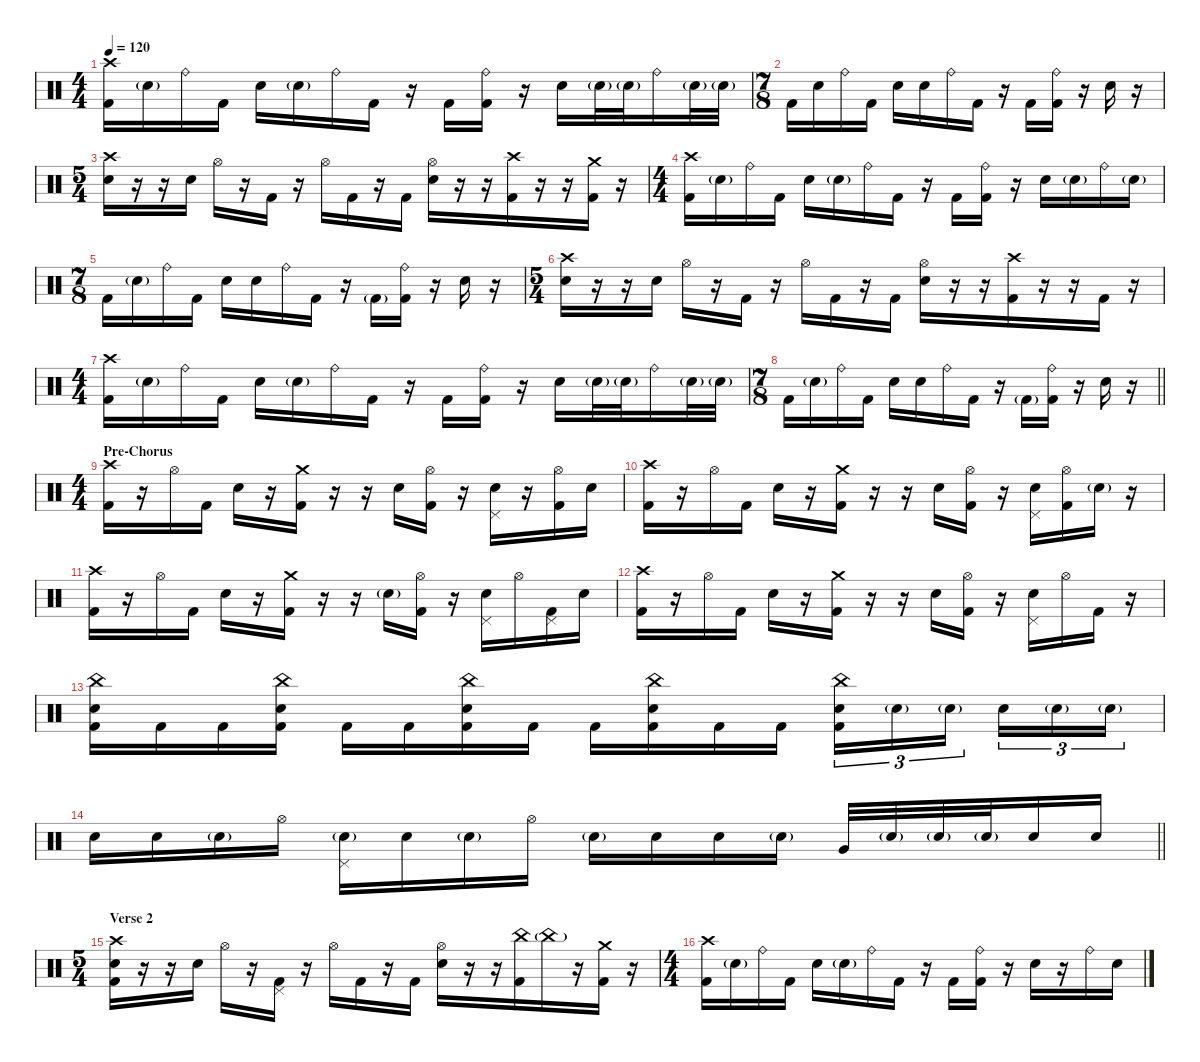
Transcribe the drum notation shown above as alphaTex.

\defaultSystemsLayout 4
\hideDynamics
\bracketExtendMode nobrackets
\singleTrackTrackNamePolicy hidden
\multiTrackTrackNamePolicy hidden
\firstSystemTrackNameMode fullname
\firstSystemTrackNameOrientation horizontal
\otherSystemsTrackNameOrientation horizontal
\track ("Martin Axenrot - Drums" "drm.") {instrument percussion}
\staff {score}
\articulation defaults
\ts (4 4)
\beaming (8 2 2 2 2)
\tempo 120
\clef neutral
\ks c
("Crash high (hit)" "Kick (hit) 2").16{dy f beam Down} "Snare (hit) 2"{g}.16{dy mf beam Down} "Ride (bell)".16{dy f beam Down} "Kick (hit) 2".16{beam Down} "Snare (hit) 2".16{beam Down} "Snare (hit) 2"{g}.16{dy mf beam Down} "Ride (bell)".16{dy f beam Down} "Kick (hit) 2".16{beam Down} r.16{beam Down} "Kick (hit) 2".16{dy mf beam Down} ("Ride (bell)" "Kick (hit) 2").16{dy f beam Down} r.16{beam Down} "Snare (hit) 2".16{beam Down} "Snare (hit) 2"{g}.32{dy mf beam Down} "Snare (hit) 2"{g}.32{beam Down} "Ride (bell)".16{dy f beam Down} "Snare (hit) 2"{g}.32{dy mf beam Down} "Snare (hit) 2"{g}.32{beam Down} |
\ts (7 8)
\beaming (8 2 2 2 2)
"Kick (hit) 2".16{dy f beam Down} "Snare (hit) 2".16{beam Down} "Ride (bell)".16{beam Down} "Kick (hit) 2".16{beam Down} "Snare (hit) 2".16{beam Down} "Snare (hit) 2".16{beam Down} "Ride (bell)".16{beam Down} "Kick (hit) 2".16{beam Down} r.16{beam Down} "Kick (hit) 2".16{beam Down} ("Ride (bell)" "Kick (hit) 2").16{beam Down} r.16{beam Down} "Snare (hit) 2".16{beam Down} r.16{beam Down} |
\ts (5 4)
\beaming (8 2 2 2 4)
("Crash high (hit)" "Snare (hit) 2").16{beam Down} r.16{beam Down} r.16{beam Down} "Snare (hit) 2".16{beam Down} "Hi-Hat (open)".16{beam Down} r.16{beam Down} "Kick (hit) 2".16{beam Down} r.16{beam Down} "Hi-Hat (open)".16{beam Down} "Kick (hit) 2".16{beam Down} r.16{beam Down} "Kick (hit) 2".16{beam Down} ("Hi-Hat (open)" "Snare (hit) 2").16{beam Down} r.16{beam Down} r.16{beam Down} ("Crash high (hit)" "Kick (hit) 2").16{beam Down} r.16{beam Down} r.16{beam Down} ("Crash medium (hit)" "Kick (hit) 2").16{beam Down} r.16{beam Down} |
\ts (4 4)
\beaming (8 2 2 2 2)
("Crash high (hit)" "Kick (hit) 2").16{beam Down} "Snare (hit) 2"{g}.16{dy mf beam Down} "Ride (bell)".16{dy f beam Down} "Kick (hit) 2".16{beam Down} "Snare (hit) 2".16{beam Down} "Snare (hit) 2"{g}.16{dy mf beam Down} "Ride (bell)".16{dy f beam Down} "Kick (hit) 2".16{beam Down} r.16{beam Down} "Kick (hit) 2".16{dy mf beam Down} ("Ride (bell)" "Kick (hit) 2").16{dy f beam Down} r.16{beam Down} "Snare (hit) 2".16{beam Down} "Snare (hit) 2"{g}.16{dy mf beam Down} "Ride (bell)".16{dy f beam Down} "Snare (hit) 2"{g}.16{dy mf beam Down} |
\ts (7 8)
\beaming (8 2 2 2 2)
"Kick (hit) 2".16{dy f beam Down} "Snare (hit) 2"{g}.16{dy mf beam Down} "Ride (bell)".16{dy f beam Down} "Kick (hit) 2".16{beam Down} "Snare (hit) 2".16{beam Down} "Snare (hit) 2".16{beam Down} "Ride (bell)".16{beam Down} "Kick (hit) 2".16{beam Down} r.16{beam Down} "Kick (hit) 2"{g}.16{dy mf beam Down} ("Ride (bell)" "Kick (hit) 2").16{dy f beam Down} r.16{beam Down} "Snare (hit) 2".16{beam Down} r.16{beam Down} |
\ts (5 4)
\beaming (8 2 2 2 4)
("Crash high (hit)" "Snare (hit) 2").16{beam Down} r.16{beam Down} r.16{beam Down} "Snare (hit) 2".16{beam Down} "Hi-Hat (open)".16{beam Down} r.16{beam Down} "Kick (hit) 2".16{beam Down} r.16{beam Down} "Hi-Hat (open)".16{beam Down} "Kick (hit) 2".16{beam Down} r.16{beam Down} "Kick (hit) 2".16{beam Down} ("Hi-Hat (open)" "Snare (hit) 2").16{beam Down} r.16{beam Down} r.16{beam Down} ("Crash high (hit)" "Kick (hit) 2").16{beam Down} r.16{beam Down} r.16{beam Down} "Kick (hit) 2".16{beam Down} r.16{beam Down} |
\ts (4 4)
\beaming (8 2 2 2 2)
("Crash high (hit)" "Kick (hit) 2").16{beam Down} "Snare (hit) 2"{g}.16{dy mf beam Down} "Ride (bell)".16{dy f beam Down} "Kick (hit) 2".16{beam Down} "Snare (hit) 2".16{beam Down} "Snare (hit) 2"{g}.16{dy mf beam Down} "Ride (bell)".16{dy f beam Down} "Kick (hit) 2".16{beam Down} r.16{beam Down} "Kick (hit) 2".16{dy mf beam Down} ("Ride (bell)" "Kick (hit) 2").16{dy f beam Down} r.16{beam Down} "Snare (hit) 2".16{beam Down} "Snare (hit) 2"{g}.32{dy mf beam Down} "Snare (hit) 2"{g}.32{beam Down} "Ride (bell)".16{dy f beam Down} "Snare (hit) 2"{g}.32{dy mf beam Down} "Snare (hit) 2"{g}.32{beam Down} |
\ts (7 8)
\beaming (8 2 2 2 2)
\barLineRight lightlight "Kick (hit) 2".16{dy f beam Down} "Snare (hit) 2"{g}.16{dy mf beam Down} "Ride (bell)".16{dy f beam Down} "Kick (hit) 2".16{beam Down} "Snare (hit) 2".16{beam Down} "Snare (hit) 2".16{beam Down} "Ride (bell)".16{beam Down} "Kick (hit) 2".16{beam Down}
r.16{beam Down} "Kick (hit) 2"{g}.16{dy mf beam Down} ("Ride (bell)" "Kick (hit) 2").16{dy f beam Down} r.16{beam Down} "Snare (hit) 2".16{beam Down} r.16{beam Down} |
\ts (4 4)
\beaming (8 2 2 2 2)
\section ("" "Pre-Chorus")
("Crash high (hit)" "Kick (hit) 2").16{beam Down} r.16{beam Down} "Hi-Hat (open)".16{beam Down} "Kick (hit) 2".16{beam Down} "Snare (hit) 2".16{beam Down} r.16{beam Down} ("Crash medium (hit)" "Kick (hit) 2").16{beam Down} r.16{beam Down} r.16{beam Down} "Snare (hit) 2".16{beam Down} ("Hi-Hat (open)" "Kick (hit) 2").16{beam Down} r.16{beam Down} ("Snare (hit) 2" "Pedal Hi-Hat (hit)").16{beam Down} r.16{beam Down} ("Hi-Hat (open)" "Kick (hit) 2").16{beam Down} "Snare (hit) 2".16{beam Down} |
("Crash high (hit)" "Kick (hit) 2").16{beam Down} r.16{beam Down} "Hi-Hat (open)".16{beam Down} "Kick (hit) 2".16{beam Down} "Snare (hit) 2".16{beam Down} r.16{beam Down} ("Crash medium (hit)" "Kick (hit) 2").16{beam Down} r.16{beam Down} r.16{beam Down} "Snare (hit) 2".16{beam Down} ("Hi-Hat (open)" "Kick (hit) 2").16{beam Down} r.16{beam Down} ("Snare (hit) 2" "Pedal Hi-Hat (hit)").16{beam Down} ("Hi-Hat (open)" "Kick (hit) 2").16{beam Down} "Snare (hit) 2"{g}.16{dy mf beam Down} r.16{beam Down} |
("Crash high (hit)" "Kick (hit) 2").16{dy f beam Down} r.16{beam Down} "Hi-Hat (open)".16{beam Down} "Kick (hit) 2".16{beam Down} "Snare (hit) 2".16{beam Down} r.16{beam Down} ("Crash medium (hit)" "Kick (hit) 2").16{beam Down} r.16{beam Down} r.16{beam Down} "Snare (hit) 2"{g}.16{dy mf beam Down} ("Hi-Hat (open)" "Kick (hit) 2").16{dy f beam Down} r.16{beam Down} ("Snare (hit) 2" "Pedal Hi-Hat (hit)").16{beam Down} "Hi-Hat (open)".16{beam Down} ("Pedal Hi-Hat (hit)" "Kick (hit) 2").16{beam Down} "Snare (hit) 2".16{beam Down} |
("Crash high (hit)" "Kick (hit) 2").16{beam Down} r.16{beam Down} "Hi-Hat (open)".16{beam Down} "Kick (hit) 2".16{beam Down} "Snare (hit) 2".16{beam Down} r.16{beam Down} ("Crash medium (hit)" "Kick (hit) 2").16{beam Down} r.16{beam Down} r.16{beam Down} "Snare (hit) 2".16{beam Down} ("Hi-Hat (open)" "Kick (hit) 2").16{beam Down} r.16{beam Down} ("Snare (hit) 2" "Pedal Hi-Hat (hit)").16{beam Down} "Hi-Hat (open)".16{beam Down} "Kick (hit) 2".16{beam Down} r.16{beam Down} |
("China (hit)" "Snare (hit) 2" "Kick (hit) 2").16{beam Down} "Kick (hit) 2".16{beam Down} "Kick (hit) 2".16{beam Down} ("China (hit)" "Snare (hit) 2" "Kick (hit) 2").16{beam Down} "Kick (hit) 2".16{beam Down} "Kick (hit) 2".16{beam Down} ("China (hit)" "Snare (hit) 2" "Kick (hit) 2").16{beam Down} "Kick (hit) 2".16{beam Down} "Kick (hit) 2".16{beam Down} ("China (hit)" "Snare (hit) 2" "Kick (hit) 2").16{beam Down} "Kick (hit) 2".16{beam Down} "Kick (hit) 2".16{beam Down} ("China (hit)" "Snare (hit) 2" "Kick (hit) 2").16{tu (3 2) beam Down} "Snare (hit) 2"{g}.16{tu (3 2) dy mf beam Down} "Snare (hit) 2"{g}.16{tu (3 2) beam Down} "Snare (hit) 2".16{tu (3 2) dy f beam Down} "Snare (hit) 2"{g}.16{tu (3 2) dy mf beam Down} "Snare (hit) 2"{g}.16{tu (3 2) beam Down} |
\barLineRight lightlight "Snare (hit) 2".16{dy f beam Down} "Snare (hit) 2".16{beam Down} "Snare (hit) 2"{g}.16{dy mf beam Down} "Hi-Hat (open)".16{dy f beam Down}
("Snare (hit) 2"{g} "Pedal Hi-Hat (hit)").16{beam Down} "Snare (hit) 2".16{beam Down} "Snare (hit) 2"{g}.16{dy mf beam Down} "Hi-Hat (open)".16{dy f beam Down} "Snare (hit) 2"{g}.16{dy mf beam Down} "Snare (hit) 2".16{dy f beam Down} "Snare (hit) 2".16{beam Down} "Snare (hit) 2"{g}.16{dy mf beam Down} "Very Low Tom (hit)".32{dy fff beam Up} "Snare (hit) 2"{g}.32{dy mf beam Up} "Snare (hit) 2"{g}.32{beam Up} "Snare (hit) 2"{g}.32{beam Up} "Snare (hit) 2".16{dy f beam Up} "Snare (hit) 2".16{beam Up} |
\ts (5 4)
\beaming (8 2 2 2 4)
\section ("" "Verse 2")
("Crash high (hit)" "Snare (hit) 2" "Kick (hit) 2").16{beam Down} r.16{beam Down} r.16{beam Down} "Snare (hit) 2".16{beam Down} "Hi-Hat (open)".16{beam Down} r.16{beam Down} ("Pedal Hi-Hat (hit)" "Kick (hit) 2").16{beam Down} r.16{beam Down} "Hi-Hat (open)".16{beam Down} "Kick (hit) 2".16{beam Down} r.16{beam Down} "Kick (hit) 2".16{beam Down} ("Hi-Hat (open)" "Snare (hit) 2").16{beam Down} r.16{beam Down} r.16{beam Down} ("China (hit)" "Kick (hit) 2").16{beam Down} "China (hit)"{g}.16{dy pp beam Down} r.16{beam Down} ("Crash medium (hit)" "Kick (hit) 2").16{dy f beam Down} r.16{beam Down} |
\ts (4 4)
\beaming (8 2 2 2 2)
("Crash high (hit)" "Kick (hit) 2").16{beam Down} "Snare (hit) 2"{g}.16{dy mf beam Down} "Ride (bell)".16{dy f beam Down} "Kick (hit) 2".16{beam Down} "Snare (hit) 2".16{beam Down} "Snare (hit) 2"{g}.16{dy mf beam Down} "Ride (bell)".16{dy f beam Down} "Kick (hit) 2".16{beam Down} r.16{beam Down} "Kick (hit) 2".16{dy mf beam Down} ("Ride (bell)" "Kick (hit) 2").16{dy f beam Down} r.16{beam Down} "Snare (hit) 2".16{beam Down} r.16{beam Down} "Ride (bell)".16{beam Down} "Snare (hit) 2".16{beam Down}
